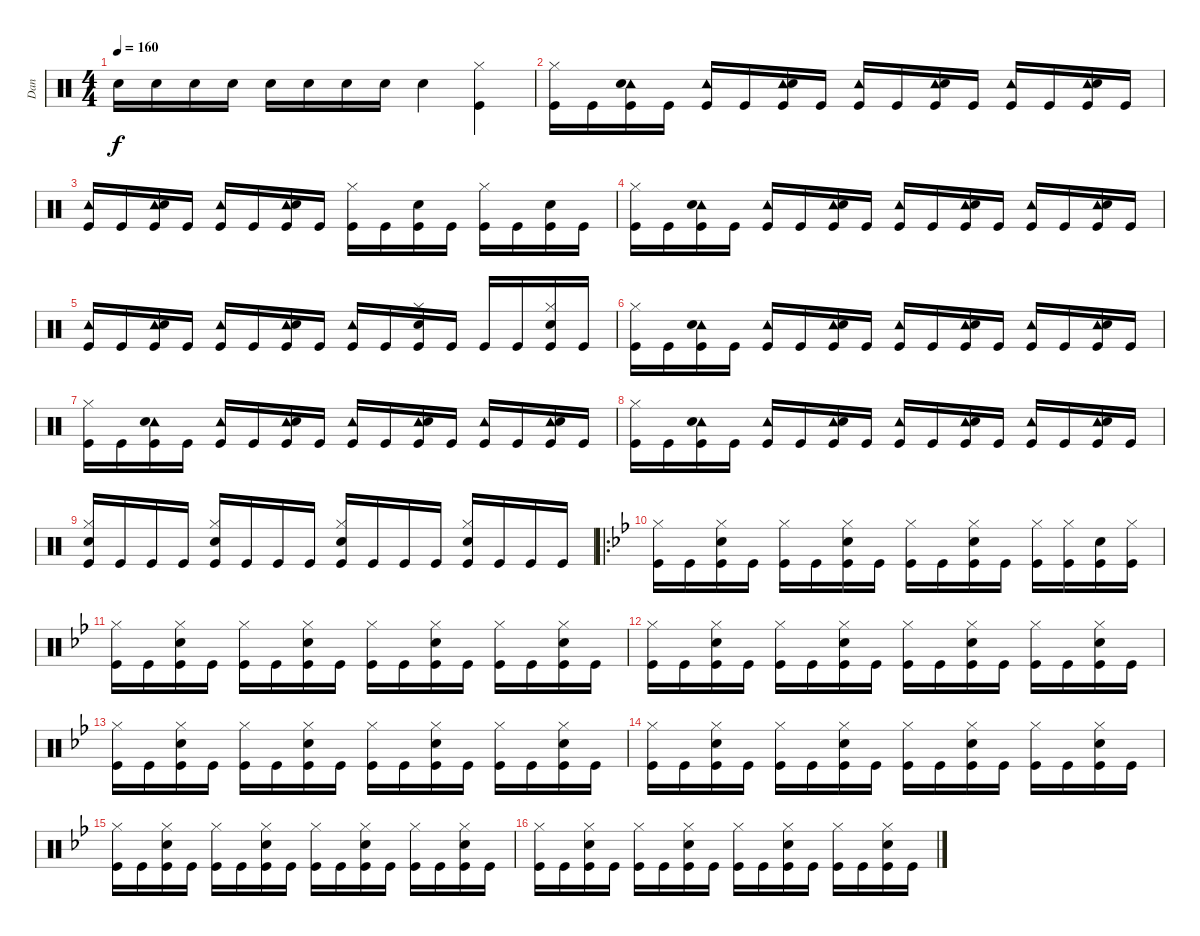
\track ("Dan" "Dan") {instrument percussion}
\staff {score}
\articulation defaults
\ts (4 4)
\tempo 160
\clef neutral
\ks c "Snare (hit) 2".16{dy f} "Snare (hit) 2".16 "Snare (hit) 2".16 "Snare (hit) 2".16 "Snare (hit) 2".16 "Snare (hit) 2".16 "Snare (hit) 2".16 "Snare (hit) 2".16 "Snare (hit) 2".4
("Hi-Hat (closed)" "Kick (hit)").4 |
("Hi-Hat (closed)" "Kick (hit)").16 "Kick (hit)".16 ("Tambourine (hit)" "Snare (hit) 2" "Kick (hit)").16 "Kick (hit)".16 ("Tambourine (hit)" "Kick (hit)").16 "Kick (hit)".16 ("Tambourine (hit)" "Snare (hit) 2" "Kick (hit)").16 "Kick (hit)".16 ("Tambourine (hit)" "Kick (hit)").16 "Kick (hit)".16 ("Tambourine (hit)" "Snare (hit) 2" "Kick (hit)").16 "Kick (hit)".16 ("Tambourine (hit)" "Kick (hit)").16 "Kick (hit)".16 ("Tambourine (hit)" "Snare (hit) 2" "Kick (hit)").16 "Kick (hit)".16 |
("Tambourine (hit)" "Kick (hit)").16 "Kick (hit)".16 ("Tambourine (hit)" "Snare (hit) 2" "Kick (hit)").16 "Kick (hit)".16 ("Tambourine (hit)" "Kick (hit)").16 "Kick (hit)".16 ("Tambourine (hit)" "Snare (hit) 2" "Kick (hit)").16 "Kick (hit)".16 ("Hi-Hat (closed)" "Kick (hit)").16 "Kick (hit)".16 ("Snare (hit) 2" "Kick (hit)").16 "Kick (hit)".16 ("Hi-Hat (closed)" "Kick (hit)").16 "Kick (hit)".16 ("Snare (hit) 2" "Kick (hit)").16 "Kick (hit)".16 |
("Hi-Hat (closed)" "Kick (hit)").16 "Kick (hit)".16 ("Tambourine (hit)" "Snare (hit) 2" "Kick (hit)").16 "Kick (hit)".16 ("Tambourine (hit)" "Kick (hit)").16 "Kick (hit)".16 ("Tambourine (hit)" "Snare (hit) 2" "Kick (hit)").16 "Kick (hit)".16 ("Tambourine (hit)" "Kick (hit)").16 "Kick (hit)".16 ("Tambourine (hit)" "Snare (hit) 2" "Kick (hit)").16 "Kick (hit)".16 ("Tambourine (hit)" "Kick (hit)").16 "Kick (hit)".16 ("Tambourine (hit)" "Snare (hit) 2" "Kick (hit)").16 "Kick (hit)".16 |
("Tambourine (hit)" "Kick (hit)").16 "Kick (hit)".16 ("Tambourine (hit)" "Snare (hit) 2" "Kick (hit)").16 "Kick (hit)".16 ("Tambourine (hit)" "Kick (hit)").16 "Kick (hit)".16 ("Tambourine (hit)" "Snare (hit) 2" "Kick (hit)").16 "Kick (hit)".16 ("Tambourine (hit)" "Kick (hit)").16 "Kick (hit)".16 ("Hi-Hat (closed)" "Snare (hit) 2" "Kick (hit)").16 "Kick (hit)".16 "Kick (hit)".16 "Kick (hit)".16 ("Hi-Hat (closed)" "Snare (hit) 2" "Kick (hit)").16 "Kick (hit)".16 |
("Hi-Hat (closed)" "Kick (hit)").16 "Kick (hit)".16 ("Tambourine (hit)" "Snare (hit) 2" "Kick (hit)").16 "Kick (hit)".16 ("Tambourine (hit)" "Kick (hit)").16 "Kick (hit)".16 ("Tambourine (hit)" "Snare (hit) 2" "Kick (hit)").16 "Kick (hit)".16 ("Tambourine (hit)" "Kick (hit)").16 "Kick (hit)".16 ("Tambourine (hit)" "Snare (hit) 2" "Kick (hit)").16 "Kick (hit)".16 ("Tambourine (hit)" "Kick (hit)").16 "Kick (hit)".16 ("Tambourine (hit)" "Snare (hit) 2" "Kick (hit)").16 "Kick (hit)".16 |
("Hi-Hat (closed)" "Kick (hit)").16 "Kick (hit)".16 ("Tambourine (hit)" "Snare (hit) 2" "Kick (hit)").16 "Kick (hit)".16 ("Tambourine (hit)" "Kick (hit)").16 "Kick (hit)".16 ("Tambourine (hit)" "Snare (hit) 2" "Kick (hit)").16 "Kick (hit)".16 ("Tambourine (hit)" "Kick (hit)").16 "Kick (hit)".16 ("Tambourine (hit)" "Snare (hit) 2" "Kick (hit)").16 "Kick (hit)".16 ("Tambourine (hit)" "Kick (hit)").16 "Kick (hit)".16 ("Tambourine (hit)" "Snare (hit) 2" "Kick (hit)").16 "Kick (hit)".16 |
("Hi-Hat (closed)" "Kick (hit)").16 "Kick (hit)".16 ("Tambourine (hit)" "Snare (hit) 2" "Kick (hit)").16 "Kick (hit)".16 ("Tambourine (hit)" "Kick (hit)").16 "Kick (hit)".16 ("Tambourine (hit)" "Snare (hit) 2" "Kick (hit)").16 "Kick (hit)".16 ("Tambourine (hit)" "Kick (hit)").16 "Kick (hit)".16 ("Tambourine (hit)" "Snare (hit) 2" "Kick (hit)").16 "Kick (hit)".16 ("Tambourine (hit)" "Kick (hit)").16 "Kick (hit)".16 ("Tambourine (hit)" "Snare (hit) 2" "Kick (hit)").16 "Kick (hit)".16 |
("Hi-Hat (closed)" "Snare (hit) 2" "Kick (hit)").16 "Kick (hit)".16 "Kick (hit)".16 "Kick (hit)".16 ("Hi-Hat (closed)" "Snare (hit) 2" "Kick (hit)").16 "Kick (hit)".16 "Kick (hit)".16 "Kick (hit)".16 ("Hi-Hat (closed)" "Snare (hit) 2" "Kick (hit)").16 "Kick (hit)".16 "Kick (hit)".16 "Kick (hit)".16 ("Hi-Hat (closed)" "Snare (hit) 2" "Kick (hit)").16 "Kick (hit)".16 "Kick (hit)".16 "Kick (hit)".16 |
\ro
\ks bb
("Hi-Hat (closed)" "Kick (hit)").16 "Kick (hit)".16 ("Hi-Hat (closed)" "Snare (hit) 2" "Kick (hit)").16 "Kick (hit)".16 ("Hi-Hat (closed)" "Kick (hit)").16 "Kick (hit)".16 ("Hi-Hat (closed)" "Snare (hit) 2" "Kick (hit)").16 "Kick (hit)".16 ("Hi-Hat (closed)" "Kick (hit)").16 "Kick (hit)".16 ("Hi-Hat (closed)" "Snare (hit) 2" "Kick (hit)").16 "Kick (hit)".16 ("Hi-Hat (closed)" "Kick (hit)").16 ("Hi-Hat (closed)" "Kick (hit)").16 ("Snare (hit) 2" "Kick (hit)").16 ("Hi-Hat (closed)" "Kick (hit)").16 |
("Hi-Hat (closed)" "Kick (hit)").16 "Kick (hit)".16 ("Hi-Hat (closed)" "Snare (hit) 2" "Kick (hit)").16 "Kick (hit)".16 ("Hi-Hat (closed)" "Kick (hit)").16 "Kick (hit)".16 ("Hi-Hat (closed)" "Snare (hit) 2" "Kick (hit)").16 "Kick (hit)".16 ("Hi-Hat (closed)" "Kick (hit)").16 "Kick (hit)".16 ("Hi-Hat (closed)" "Snare (hit) 2" "Kick (hit)").16 "Kick (hit)".16 ("Hi-Hat (closed)" "Kick (hit)").16 "Kick (hit)".16 ("Hi-Hat (closed)" "Snare (hit) 2" "Kick (hit)").16 "Kick (hit)".16 |
("Hi-Hat (closed)" "Kick (hit)").16 "Kick (hit)".16 ("Hi-Hat (closed)" "Snare (hit) 2" "Kick (hit)").16 "Kick (hit)".16 ("Hi-Hat (closed)" "Kick (hit)").16 "Kick (hit)".16 ("Hi-Hat (closed)" "Snare (hit) 2" "Kick (hit)").16 "Kick (hit)".16 ("Hi-Hat (closed)" "Kick (hit)").16 "Kick (hit)".16 ("Hi-Hat (closed)" "Snare (hit) 2" "Kick (hit)").16 "Kick (hit)".16 ("Hi-Hat (closed)" "Kick (hit)").16 "Kick (hit)".16 ("Hi-Hat (closed)" "Snare (hit) 2" "Kick (hit)").16 "Kick (hit)".16 |
("Hi-Hat (closed)" "Kick (hit)").16 "Kick (hit)".16 ("Hi-Hat (closed)" "Snare (hit) 2" "Kick (hit)").16 "Kick (hit)".16 ("Hi-Hat (closed)" "Kick (hit)").16 "Kick (hit)".16 ("Hi-Hat (closed)" "Snare (hit) 2" "Kick (hit)").16 "Kick (hit)".16 ("Hi-Hat (closed)" "Kick (hit)").16 "Kick (hit)".16 ("Hi-Hat (closed)" "Snare (hit) 2" "Kick (hit)").16 "Kick (hit)".16 ("Hi-Hat (closed)" "Kick (hit)").16 "Kick (hit)".16 ("Hi-Hat (closed)" "Snare (hit) 2" "Kick (hit)").16 "Kick (hit)".16 |
("Hi-Hat (closed)" "Kick (hit)").16 "Kick (hit)".16 ("Hi-Hat (closed)" "Snare (hit) 2" "Kick (hit)").16 "Kick (hit)".16 ("Hi-Hat (closed)" "Kick (hit)").16 "Kick (hit)".16 ("Hi-Hat (closed)" "Snare (hit) 2" "Kick (hit)").16 "Kick (hit)".16 ("Hi-Hat (closed)" "Kick (hit)").16 "Kick (hit)".16 ("Hi-Hat (closed)" "Snare (hit) 2" "Kick (hit)").16 "Kick (hit)".16 ("Hi-Hat (closed)" "Kick (hit)").16 "Kick (hit)".16 ("Hi-Hat (closed)" "Snare (hit) 2" "Kick (hit)").16 "Kick (hit)".16 |
("Hi-Hat (closed)" "Kick (hit)").16 "Kick (hit)".16 ("Hi-Hat (closed)" "Snare (hit) 2" "Kick (hit)").16 "Kick (hit)".16 ("Hi-Hat (closed)" "Kick (hit)").16 "Kick (hit)".16 ("Hi-Hat (closed)" "Snare (hit) 2" "Kick (hit)").16 "Kick (hit)".16 ("Hi-Hat (closed)" "Kick (hit)").16 "Kick (hit)".16 ("Hi-Hat (closed)" "Snare (hit) 2" "Kick (hit)").16 "Kick (hit)".16 ("Hi-Hat (closed)" "Kick (hit)").16 "Kick (hit)".16 ("Hi-Hat (closed)" "Snare (hit) 2" "Kick (hit)").16 "Kick (hit)".16 |
("Hi-Hat (closed)" "Kick (hit)").16 "Kick (hit)".16 ("Hi-Hat (closed)" "Snare (hit) 2" "Kick (hit)").16 "Kick (hit)".16 ("Hi-Hat (closed)" "Kick (hit)").16 "Kick (hit)".16 ("Hi-Hat (closed)" "Snare (hit) 2" "Kick (hit)").16 "Kick (hit)".16 ("Hi-Hat (closed)" "Kick (hit)").16 "Kick (hit)".16 ("Hi-Hat (closed)" "Snare (hit) 2" "Kick (hit)").16 "Kick (hit)".16 ("Hi-Hat (closed)" "Kick (hit)").16 "Kick (hit)".16 ("Hi-Hat (closed)" "Snare (hit) 2" "Kick (hit)").16 "Kick (hit)".16
